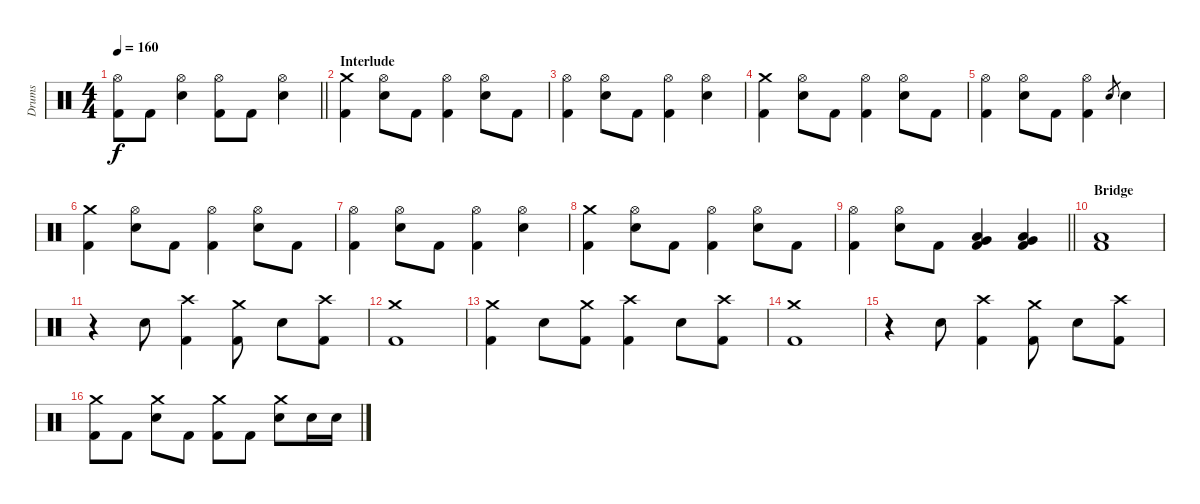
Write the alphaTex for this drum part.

\track ("Drums" "Drums") {instrument percussion}
\staff {score}
\articulation defaults
\ts (4 4)
\tempo 160
\clef neutral
\barLineRight lightlight
\ks c
("Hi-Hat (open)" "Kick (hit) 2").8{dy f} "Kick (hit) 2".8 ("Hi-Hat (open)" "Electric Snare (hit)").4 ("Hi-Hat (open)" "Kick (hit) 2").8 "Kick (hit) 2".8 ("Hi-Hat (open)" "Electric Snare (hit)").4 |
\section ("" "Interlude")
("Crash medium (hit)" "Kick (hit) 2").4 ("Hi-Hat (open)" "Electric Snare (hit)").8 "Kick (hit) 2".8 ("Hi-Hat (open)" "Kick (hit) 2").4 ("Hi-Hat (open)" "Electric Snare (hit)").8 "Kick (hit) 2".8 |
("Hi-Hat (open)" "Kick (hit) 2").4 ("Hi-Hat (open)" "Electric Snare (hit)").8 "Kick (hit) 2".8 ("Hi-Hat (open)" "Kick (hit) 2").4 ("Hi-Hat (open)" "Electric Snare (hit)").4 |
("Crash medium (hit)" "Kick (hit) 2").4 ("Hi-Hat (open)" "Electric Snare (hit)").8 "Kick (hit) 2".8 ("Hi-Hat (open)" "Kick (hit) 2").4 ("Hi-Hat (open)" "Electric Snare (hit)").8 "Kick (hit) 2".8 |
("Hi-Hat (open)" "Kick (hit) 2").4 ("Hi-Hat (open)" "Electric Snare (hit)").8 "Kick (hit) 2".8 ("Hi-Hat (open)" "Kick (hit) 2").4 "Electric Snare (hit)".8{gr} "Electric Snare (hit)".4 |
("Crash medium (hit)" "Kick (hit) 2").4 ("Hi-Hat (open)" "Electric Snare (hit)").8 "Kick (hit) 2".8 ("Hi-Hat (open)" "Kick (hit) 2").4 ("Hi-Hat (open)" "Electric Snare (hit)").8 "Kick (hit) 2".8 |
("Hi-Hat (open)" "Kick (hit) 2").4 ("Hi-Hat (open)" "Electric Snare (hit)").8 "Kick (hit) 2".8 ("Hi-Hat (open)" "Kick (hit) 2").4 ("Hi-Hat (open)" "Electric Snare (hit)").4 |
("Crash medium (hit)" "Kick (hit) 2").4 ("Hi-Hat (open)" "Electric Snare (hit)").8 "Kick (hit) 2".8 ("Hi-Hat (open)" "Kick (hit) 2").4 ("Hi-Hat (open)" "Electric Snare (hit)").8 "Kick (hit) 2".8 |
\barLineRight lightlight
("Hi-Hat (open)" "Kick (hit) 2").4 ("Hi-Hat (open)" "Electric Snare (hit)").8 "Kick (hit) 2".8 ("Low Floor Tom (hit)" "Very Low Tom (hit)" "Kick (hit) 2").4 ("Low Floor Tom (hit)" "Very Low Tom (hit)" "Kick (hit) 2").4 |
\section ("" "Bridge")
("Low Floor Tom (hit)" "Kick (hit) 2").1 |
r.4 "Electric Snare (hit)".8 ("Crash high (hit)" "Kick (hit) 2").4 ("Crash medium (hit)" "Kick (hit) 2").8 "Electric Snare (hit)".8 ("Crash high (hit)" "Kick (hit) 2").8 |
("Crash medium (hit)" "Kick (hit) 2").1 |
("Crash medium (hit)" "Kick (hit) 2").4 "Electric Snare (hit)".8 ("Crash medium (hit)" "Kick (hit) 2").8 ("Crash high (hit)" "Kick (hit) 2").4 "Electric Snare (hit)".8 ("Crash high (hit)" "Kick (hit) 2").8 |
("Crash medium (hit)" "Kick (hit) 2").1 |
r.4 "Electric Snare (hit)".8 ("Crash high (hit)" "Kick (hit) 2").4 ("Crash medium (hit)" "Kick (hit) 2").8 "Electric Snare (hit)".8 ("Crash high (hit)" "Kick (hit) 2").8 |
("Crash medium (hit)" "Kick (hit) 2").8 "Kick (hit) 2".8 ("Crash medium (hit)" "Electric Snare (hit)").8 "Kick (hit) 2".8 ("Crash medium (hit)" "Kick (hit) 2").8 "Kick (hit) 2".8 ("Crash medium (hit)" "Electric Snare (hit)").8 "Electric Snare (hit)".16 "Electric Snare (hit)".16
